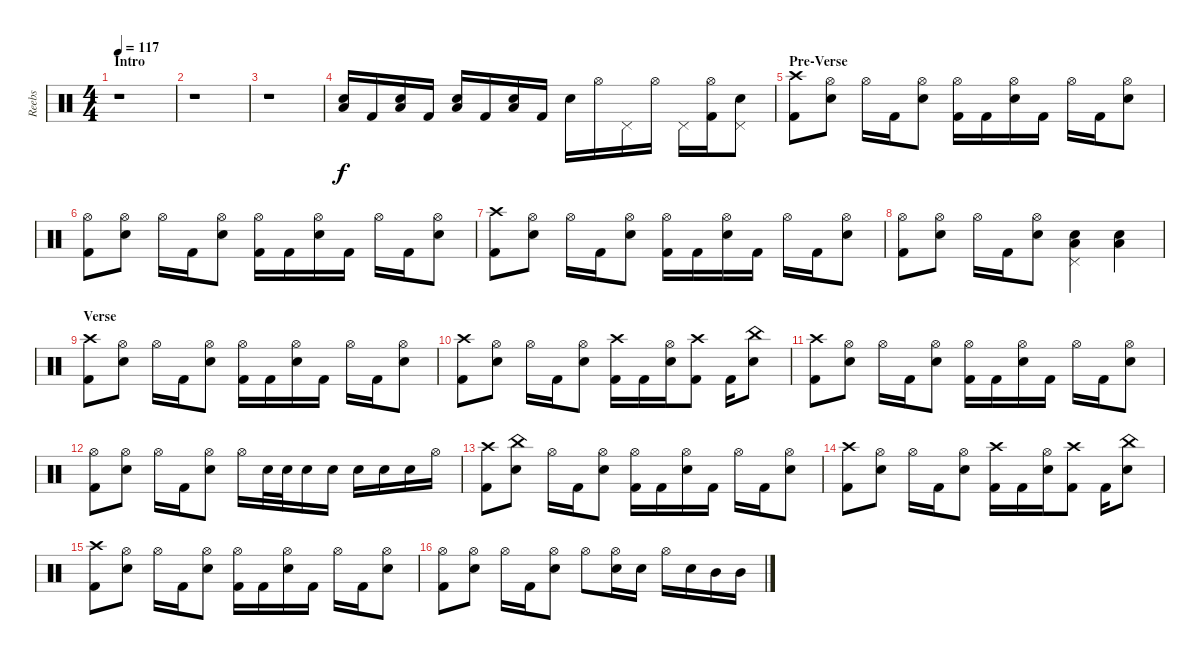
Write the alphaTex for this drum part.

\track ("Reebs" "Reebs") {instrument percussion}
\staff {score}
\articulation defaults
\ts (4 4)
\section ("" "Intro")
\tempo 117
\clef neutral
\ks c
r.1{dy f} |
r.1 |
r.1 |
("Low Tom (hit)" "Electric Snare (hit)").16 "Kick (hit) 2".16 ("Low Tom (hit)" "Electric Snare (hit)").16 "Kick (hit) 2".16 ("Low Tom (hit)" "Electric Snare (hit)").16 "Kick (hit) 2".16 ("Low Tom (hit)" "Electric Snare (hit)").16 "Kick (hit) 2".16 "Electric Snare (hit)".16 "Hi-Hat (open)".16 "Pedal Hi-Hat (hit)".16 "Hi-Hat (open)".16 "Pedal Hi-Hat (hit)".16 ("Hi-Hat (open)" "Kick (hit) 2").16 ("Pedal Hi-Hat (hit)" "Electric Snare (hit)").8 |
\section ("" "Pre-Verse")
("Crash high (hit)" "Kick (hit) 2").8 ("Hi-Hat (open)" "Electric Snare (hit)").8 "Hi-Hat (open)".16 "Kick (hit) 2".16 ("Hi-Hat (open)" "Electric Snare (hit)").8 ("Hi-Hat (open)" "Kick (hit) 2").16 "Kick (hit) 2".16 ("Hi-Hat (open)" "Electric Snare (hit)").16 "Kick (hit) 2".16 "Hi-Hat (open)".16 "Kick (hit) 2".16 ("Hi-Hat (open)" "Electric Snare (hit)").8 |
("Hi-Hat (open)" "Kick (hit) 2").8 ("Hi-Hat (open)" "Electric Snare (hit)").8 "Hi-Hat (open)".16 "Kick (hit) 2".16 ("Hi-Hat (open)" "Electric Snare (hit)").8 ("Hi-Hat (open)" "Kick (hit) 2").16 "Kick (hit) 2".16 ("Hi-Hat (open)" "Electric Snare (hit)").16 "Kick (hit) 2".16 "Hi-Hat (open)".16 "Kick (hit) 2".16 ("Hi-Hat (open)" "Electric Snare (hit)").8 |
("Crash high (hit)" "Kick (hit) 2").8 ("Hi-Hat (open)" "Electric Snare (hit)").8 "Hi-Hat (open)".16 "Kick (hit) 2".16 ("Hi-Hat (open)" "Electric Snare (hit)").8 ("Hi-Hat (open)" "Kick (hit) 2").16 "Kick (hit) 2".16 ("Hi-Hat (open)" "Electric Snare (hit)").16 "Kick (hit) 2".16 "Hi-Hat (open)".16 "Kick (hit) 2".16 ("Hi-Hat (open)" "Electric Snare (hit)").8 |
("Hi-Hat (open)" "Kick (hit) 2").8 ("Hi-Hat (open)" "Electric Snare (hit)").8 "Hi-Hat (open)".16 "Kick (hit) 2".16 ("Hi-Hat (open)" "Electric Snare (hit)").8 ("Pedal Hi-Hat (hit)" "Low Floor Tom (hit)" "Electric Snare (hit)").4 ("Low Floor Tom (hit)" "Electric Snare (hit)").4 |
\section ("" "Verse")
("Crash high (hit)" "Kick (hit) 2").8 ("Hi-Hat (open)" "Electric Snare (hit)").8 "Hi-Hat (open)".16 "Kick (hit) 2".16 ("Hi-Hat (open)" "Electric Snare (hit)").8 ("Hi-Hat (open)" "Kick (hit) 2").16 "Kick (hit) 2".16 ("Hi-Hat (open)" "Electric Snare (hit)").16 "Kick (hit) 2".16 "Hi-Hat (open)".16 "Kick (hit) 2".16 ("Hi-Hat (open)" "Electric Snare (hit)").8 |
("Crash high (hit)" "Kick (hit) 2").8 ("Hi-Hat (open)" "Electric Snare (hit)").8 "Hi-Hat (open)".16 "Kick (hit) 2".16 ("Hi-Hat (open)" "Electric Snare (hit)").8 ("Crash high (hit)" "Kick (hit) 2").16 "Kick (hit) 2".16 ("Hi-Hat (open)" "Electric Snare (hit)").16 ("Crash high (hit)" "Kick (hit) 2").8 "Kick (hit) 2".16 ("China (hit)" "Electric Snare (hit)").8 |
("Crash high (hit)" "Kick (hit) 2").8 ("Hi-Hat (open)" "Electric Snare (hit)").8 "Hi-Hat (open)".16 "Kick (hit) 2".16 ("Hi-Hat (open)" "Electric Snare (hit)").8 ("Hi-Hat (open)" "Kick (hit) 2").16 "Kick (hit) 2".16 ("Hi-Hat (open)" "Electric Snare (hit)").16 "Kick (hit) 2".16 "Hi-Hat (open)".16 "Kick (hit) 2".16 ("Hi-Hat (open)" "Electric Snare (hit)").8 |
("Hi-Hat (open)" "Kick (hit) 2").8 ("Hi-Hat (open)" "Electric Snare (hit)").8 "Hi-Hat (open)".16 "Kick (hit) 2".16 ("Hi-Hat (open)" "Electric Snare (hit)").8 "Hi-Hat (open)".16 "Electric Snare (hit)".32 "Electric Snare (hit)".32 "Electric Snare (hit)".16 "Electric Snare (hit)".16 "Electric Snare (hit)".16 "Electric Snare (hit)".16 "Electric Snare (hit)".16 "Hi-Hat (open)".16 |
("Crash high (hit)" "Kick (hit) 2").8 ("China (hit)" "Electric Snare (hit)").8 "Hi-Hat (open)".16 "Kick (hit) 2".16 ("Hi-Hat (open)" "Electric Snare (hit)").8 ("Hi-Hat (open)" "Kick (hit) 2").16 "Kick (hit) 2".16 ("Hi-Hat (open)" "Electric Snare (hit)").16 "Kick (hit) 2".16 "Hi-Hat (open)".16 "Kick (hit) 2".16 ("Hi-Hat (open)" "Electric Snare (hit)").8 |
("Crash high (hit)" "Kick (hit) 2").8 ("Hi-Hat (open)" "Electric Snare (hit)").8 "Hi-Hat (open)".16 "Kick (hit) 2".16 ("Hi-Hat (open)" "Electric Snare (hit)").8 ("Crash high (hit)" "Kick (hit) 2").16 "Kick (hit) 2".16 ("Hi-Hat (open)" "Electric Snare (hit)").16 ("Crash high (hit)" "Kick (hit) 2").8 "Kick (hit) 2".16 ("China (hit)" "Electric Snare (hit)").8 |
("Crash high (hit)" "Kick (hit) 2").8 ("Hi-Hat (open)" "Electric Snare (hit)").8 "Hi-Hat (open)".16 "Kick (hit) 2".16 ("Hi-Hat (open)" "Electric Snare (hit)").8 ("Hi-Hat (open)" "Kick (hit) 2").16 "Kick (hit) 2".16 ("Hi-Hat (open)" "Electric Snare (hit)").16 "Kick (hit) 2".16 "Hi-Hat (open)".16 "Kick (hit) 2".16 ("Hi-Hat (open)" "Electric Snare (hit)").8 |
("Hi-Hat (open)" "Kick (hit) 2").8 ("Hi-Hat (open)" "Electric Snare (hit)").8 "Hi-Hat (open)".16 "Kick (hit) 2".16 ("Hi-Hat (open)" "Electric Snare (hit)").8 "Hi-Hat (open)".8 ("Hi-Hat (open)" "Electric Snare (hit)").16 "Electric Snare (hit)".16 "Hi-Hat (open)".16 "Electric Snare (hit)".16 "Mid Tom (hit)".16 "Mid Tom (hit)".16
